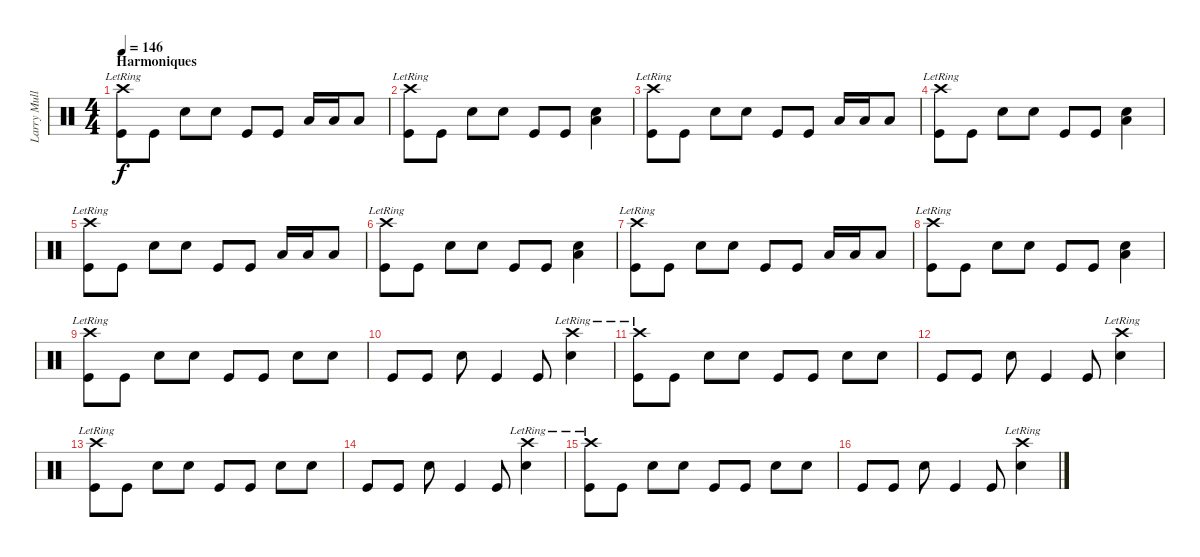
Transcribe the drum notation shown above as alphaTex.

\track ("Larry Mullen" "Larry Mull") {instrument percussion}
\staff {score}
\articulation defaults
\ts (4 4)
\section ("" "Harmoniques")
\tempo 146
\clef neutral
\ks c
("Crash high (hit)"{lr} "Kick (hit)").8{dy f} "Kick (hit)".8 "Snare (hit) 2".8 "Snare (hit) 2".8 "Kick (hit)".8 "Kick (hit)".8 "Low Tom (hit)".16 "Low Tom (hit)".16 "Low Tom (hit)".8 |
("Crash high (hit)"{lr} "Kick (hit)").8 "Kick (hit)".8 "Snare (hit) 2".8 "Snare (hit) 2".8 "Kick (hit)".8 "Kick (hit)".8 ("Low Tom (hit)" "Snare (hit) 2").4 |
("Crash high (hit)"{lr} "Kick (hit)").8 "Kick (hit)".8 "Snare (hit) 2".8 "Snare (hit) 2".8 "Kick (hit)".8 "Kick (hit)".8 "Low Tom (hit)".16 "Low Tom (hit)".16 "Low Tom (hit)".8 |
("Crash high (hit)"{lr} "Kick (hit)").8 "Kick (hit)".8 "Snare (hit) 2".8 "Snare (hit) 2".8 "Kick (hit)".8 "Kick (hit)".8 ("Low Tom (hit)" "Snare (hit) 2").4 |
("Crash high (hit)"{lr} "Kick (hit)").8 "Kick (hit)".8 "Snare (hit) 2".8 "Snare (hit) 2".8 "Kick (hit)".8 "Kick (hit)".8 "Low Tom (hit)".16 "Low Tom (hit)".16 "Low Tom (hit)".8 |
("Crash high (hit)"{lr} "Kick (hit)").8 "Kick (hit)".8 "Snare (hit) 2".8 "Snare (hit) 2".8 "Kick (hit)".8 "Kick (hit)".8 ("Low Tom (hit)" "Snare (hit) 2").4 |
("Crash high (hit)"{lr} "Kick (hit)").8 "Kick (hit)".8 "Snare (hit) 2".8 "Snare (hit) 2".8 "Kick (hit)".8 "Kick (hit)".8 "Low Tom (hit)".16 "Low Tom (hit)".16 "Low Tom (hit)".8 |
("Crash high (hit)"{lr} "Kick (hit)").8 "Kick (hit)".8 "Snare (hit) 2".8 "Snare (hit) 2".8 "Kick (hit)".8 "Kick (hit)".8 ("Low Tom (hit)" "Snare (hit) 2").4 |
("Crash high (hit)"{lr} "Kick (hit)").8 "Kick (hit)".8 "Snare (hit) 2".8 "Snare (hit) 2".8 "Kick (hit)".8 "Kick (hit)".8 "Snare (hit) 2".8 "Snare (hit) 2".8 |
"Kick (hit)".8 "Kick (hit)".8 "Snare (hit) 2".8 "Kick (hit)".4 "Kick (hit)".8 ("Crash high (hit)"{lr} "Snare (hit) 2").4 |
("Crash high (hit)"{lr} "Kick (hit)").8 "Kick (hit)".8 "Snare (hit) 2".8 "Snare (hit) 2".8 "Kick (hit)".8 "Kick (hit)".8 "Snare (hit) 2".8 "Snare (hit) 2".8 |
"Kick (hit)".8 "Kick (hit)".8 "Snare (hit) 2".8 "Kick (hit)".4 "Kick (hit)".8 ("Crash high (hit)"{lr} "Snare (hit) 2").4 |
("Crash high (hit)"{lr} "Kick (hit)").8 "Kick (hit)".8 "Snare (hit) 2".8 "Snare (hit) 2".8 "Kick (hit)".8 "Kick (hit)".8 "Snare (hit) 2".8 "Snare (hit) 2".8 |
"Kick (hit)".8 "Kick (hit)".8 "Snare (hit) 2".8 "Kick (hit)".4 "Kick (hit)".8 ("Crash high (hit)"{lr} "Snare (hit) 2").4 |
("Crash high (hit)"{lr} "Kick (hit)").8 "Kick (hit)".8 "Snare (hit) 2".8 "Snare (hit) 2".8 "Kick (hit)".8 "Kick (hit)".8 "Snare (hit) 2".8 "Snare (hit) 2".8 |
"Kick (hit)".8 "Kick (hit)".8 "Snare (hit) 2".8 "Kick (hit)".4 "Kick (hit)".8 ("Crash high (hit)"{lr} "Snare (hit) 2").4
